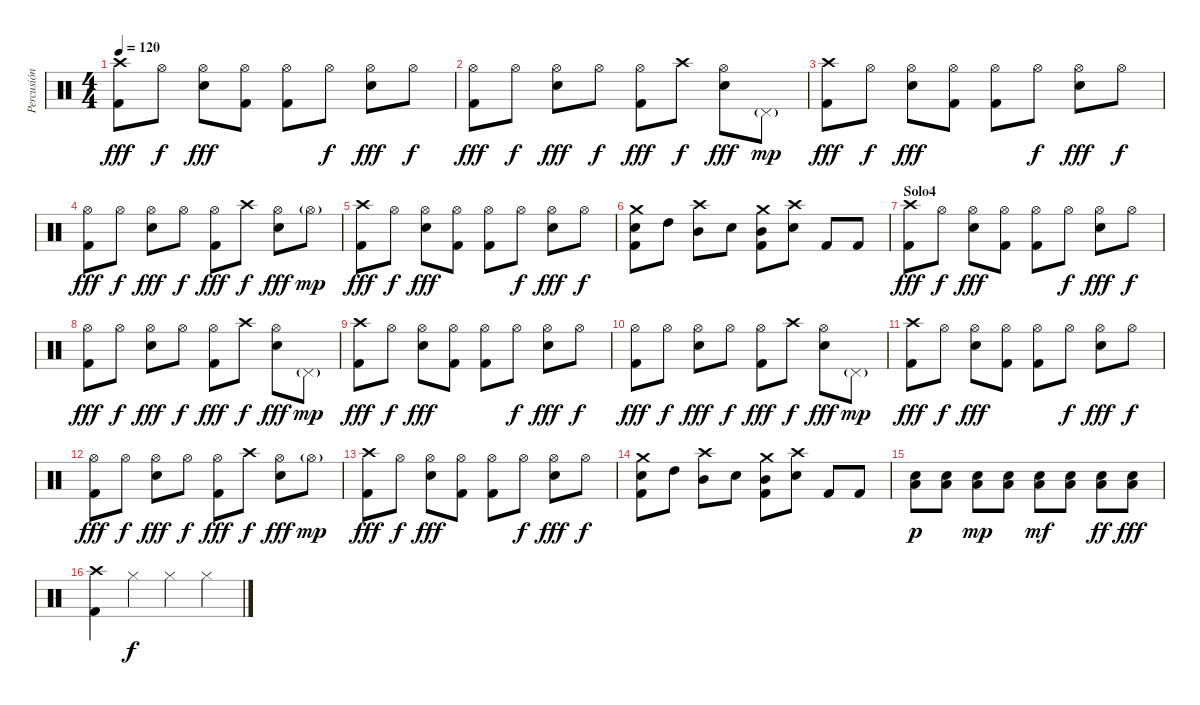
\track ("Percusión" "Percusión") {instrument percussion}
\staff {score}
\articulation defaults
\ts (4 4)
\tempo 120
\clef neutral
\ks c
("Crash high (hit)" "Kick (hit) 2").8{dy fff} "Hi-Hat (open)".8{dy f} ("Hi-Hat (open)" "Snare (hit) 2").8{dy fff} ("Hi-Hat (open)" "Kick (hit) 2").8 ("Hi-Hat (open)" "Kick (hit) 2").8 "Hi-Hat (open)".8{dy f} ("Hi-Hat (open)" "Snare (hit) 2").8{dy fff} "Hi-Hat (open)".8{dy f} |
("Hi-Hat (open)" "Kick (hit) 2").8{dy fff} "Hi-Hat (open)".8{dy f} ("Hi-Hat (open)" "Snare (hit) 2").8{dy fff} "Hi-Hat (open)".8{dy f} ("Hi-Hat (open)" "Kick (hit) 2").8{dy fff} "Crash high (hit)".8{dy f} ("Hi-Hat (open)" "Snare (hit) 2").8{dy fff} "Pedal Hi-Hat (hit)"{g}.8{dy mp} |
("Crash high (hit)" "Kick (hit) 2").8{dy fff} "Hi-Hat (open)".8{dy f} ("Hi-Hat (open)" "Snare (hit) 2").8{dy fff} ("Hi-Hat (open)" "Kick (hit) 2").8 ("Hi-Hat (open)" "Kick (hit) 2").8 "Hi-Hat (open)".8{dy f} ("Hi-Hat (open)" "Snare (hit) 2").8{dy fff} "Hi-Hat (open)".8{dy f} |
("Hi-Hat (open)" "Kick (hit) 2").8{dy fff} "Hi-Hat (open)".8{dy f} ("Hi-Hat (open)" "Snare (hit) 2").8{dy fff} "Hi-Hat (open)".8{dy f} ("Hi-Hat (open)" "Kick (hit) 2").8{dy fff} "Crash high (hit)".8{dy f} ("Hi-Hat (open)" "Snare (hit) 2").8{dy fff} "Hi-Hat (open)"{g}.8{dy mp} |
("Crash high (hit)" "Kick (hit) 2").8{dy fff} "Hi-Hat (open)".8{dy f} ("Hi-Hat (open)" "Snare (hit) 2").8{dy fff} ("Hi-Hat (open)" "Kick (hit) 2").8 ("Hi-Hat (open)" "Kick (hit) 2").8 "Hi-Hat (open)".8{dy f} ("Hi-Hat (open)" "Snare (hit) 2").8{dy fff} "Hi-Hat (open)".8{dy f} |
("Crash medium (hit)" "Snare (hit) 2" "Kick (hit) 2").8 "High Tom (hit)".8 ("Crash high (hit)" "Mid Tom (hit)").8 "Snare (hit) 2".8 ("Crash medium (hit)" "Mid Tom (hit)" "Kick (hit) 2").8 ("Crash high (hit)" "Snare (hit) 2").8 "Kick (hit) 2".8 "Kick (hit) 2".8 |
\section ("" "Solo4")
("Crash high (hit)" "Kick (hit) 2").8{dy fff} "Hi-Hat (open)".8{dy f} ("Hi-Hat (open)" "Snare (hit) 2").8{dy fff} ("Hi-Hat (open)" "Kick (hit) 2").8 ("Hi-Hat (open)" "Kick (hit) 2").8 "Hi-Hat (open)".8{dy f} ("Hi-Hat (open)" "Snare (hit) 2").8{dy fff} "Hi-Hat (open)".8{dy f} |
("Hi-Hat (open)" "Kick (hit) 2").8{dy fff} "Hi-Hat (open)".8{dy f} ("Hi-Hat (open)" "Snare (hit) 2").8{dy fff} "Hi-Hat (open)".8{dy f} ("Hi-Hat (open)" "Kick (hit) 2").8{dy fff} "Crash high (hit)".8{dy f} ("Hi-Hat (open)" "Snare (hit) 2").8{dy fff} "Pedal Hi-Hat (hit)"{g}.8{dy mp} |
("Crash high (hit)" "Kick (hit) 2").8{dy fff} "Hi-Hat (open)".8{dy f} ("Hi-Hat (open)" "Snare (hit) 2").8{dy fff} ("Hi-Hat (open)" "Kick (hit) 2").8 ("Hi-Hat (open)" "Kick (hit) 2").8 "Hi-Hat (open)".8{dy f} ("Hi-Hat (open)" "Snare (hit) 2").8{dy fff} "Hi-Hat (open)".8{dy f} |
("Hi-Hat (open)" "Kick (hit) 2").8{dy fff} "Hi-Hat (open)".8{dy f} ("Hi-Hat (open)" "Snare (hit) 2").8{dy fff} "Hi-Hat (open)".8{dy f} ("Hi-Hat (open)" "Kick (hit) 2").8{dy fff} "Crash high (hit)".8{dy f} ("Hi-Hat (open)" "Snare (hit) 2").8{dy fff} "Pedal Hi-Hat (hit)"{g}.8{dy mp} |
("Crash high (hit)" "Kick (hit) 2").8{dy fff} "Hi-Hat (open)".8{dy f} ("Hi-Hat (open)" "Snare (hit) 2").8{dy fff} ("Hi-Hat (open)" "Kick (hit) 2").8 ("Hi-Hat (open)" "Kick (hit) 2").8 "Hi-Hat (open)".8{dy f} ("Hi-Hat (open)" "Snare (hit) 2").8{dy fff} "Hi-Hat (open)".8{dy f} |
("Hi-Hat (open)" "Kick (hit) 2").8{dy fff} "Hi-Hat (open)".8{dy f} ("Hi-Hat (open)" "Snare (hit) 2").8{dy fff} "Hi-Hat (open)".8{dy f} ("Hi-Hat (open)" "Kick (hit) 2").8{dy fff} "Crash high (hit)".8{dy f} ("Hi-Hat (open)" "Snare (hit) 2").8{dy fff} "Hi-Hat (open)"{g}.8{dy mp} |
("Crash high (hit)" "Kick (hit) 2").8{dy fff} "Hi-Hat (open)".8{dy f} ("Hi-Hat (open)" "Snare (hit) 2").8{dy fff} ("Hi-Hat (open)" "Kick (hit) 2").8 ("Hi-Hat (open)" "Kick (hit) 2").8 "Hi-Hat (open)".8{dy f} ("Hi-Hat (open)" "Snare (hit) 2").8{dy fff} "Hi-Hat (open)".8{dy f} |
("Crash medium (hit)" "Snare (hit) 2" "Kick (hit) 2").8 "High Tom (hit)".8 ("Crash high (hit)" "Mid Tom (hit)").8 "Snare (hit) 2".8 ("Crash medium (hit)" "Mid Tom (hit)" "Kick (hit) 2").8 ("Crash high (hit)" "Snare (hit) 2").8 "Kick (hit) 2".8 "Kick (hit) 2".8 |
("Low Tom (hit)" "Snare (hit) 2").8{dy p} ("Low Tom (hit)" "Snare (hit) 2").8 ("Low Tom (hit)" "Snare (hit) 2").8{dy mp} ("Low Tom (hit)" "Snare (hit) 2").8 ("Low Tom (hit)" "Snare (hit) 2").8{dy mf} ("Low Tom (hit)" "Snare (hit) 2").8 ("Low Tom (hit)" "Snare (hit) 2").8{dy ff} ("Low Tom (hit)" "Snare (hit) 2").8{dy fff} |
("Crash high (hit)" "Kick (hit) 2").4 "Hi-Hat (closed)".4{dy f} "Hi-Hat (closed)".4 "Hi-Hat (closed)".4
